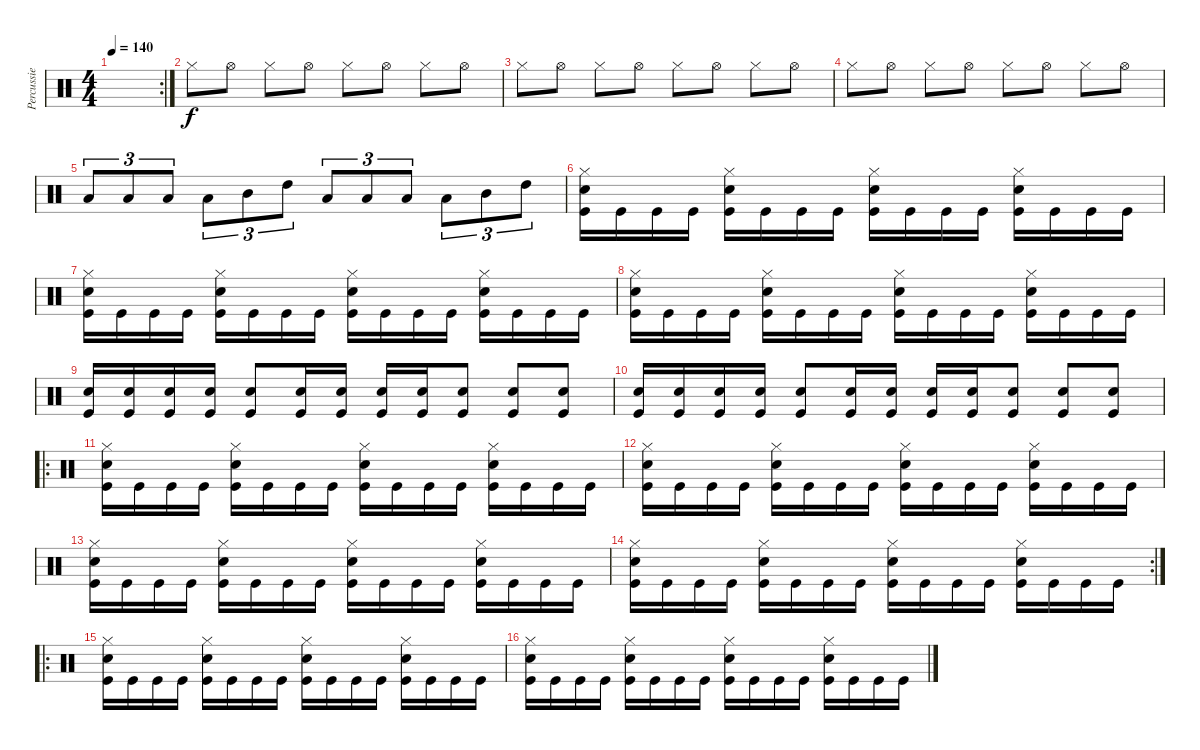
\track ("Percussie" "Percussie") {instrument percussion}
\staff {score}
\articulation defaults
\rc 2
\ts (4 4)
\tempo 140
\clef neutral
\ks c
|
"Hi-Hat (closed)".8 "Hi-Hat (open)".8 "Hi-Hat (closed)".8 "Hi-Hat (open)".8 "Hi-Hat (closed)".8 "Hi-Hat (open)".8 "Hi-Hat (closed)".8 "Hi-Hat (open)".8 |
"Hi-Hat (closed)".8 "Hi-Hat (open)".8 "Hi-Hat (closed)".8 "Hi-Hat (open)".8 "Hi-Hat (closed)".8 "Hi-Hat (open)".8 "Hi-Hat (closed)".8 "Hi-Hat (open)".8 |
"Hi-Hat (closed)".8 "Hi-Hat (open)".8 "Hi-Hat (closed)".8 "Hi-Hat (open)".8 "Hi-Hat (closed)".8 "Hi-Hat (open)".8 "Hi-Hat (closed)".8 "Hi-Hat (open)".8 |
"Low Tom (hit)".8{tu (3 2)} "Low Tom (hit)".8{tu (3 2)} "Low Tom (hit)".8{tu (3 2)} "Low Tom (hit)".8{tu (3 2)} "Mid Tom (hit)".8{tu (3 2)} "High Tom (hit)".8{tu (3 2)} "Low Tom (hit)".8{tu (3 2)} "Low Tom (hit)".8{tu (3 2)} "Low Tom (hit)".8{tu (3 2)} "Low Tom (hit)".8{tu (3 2)} "Mid Tom (hit)".8{tu (3 2)} "High Tom (hit)".8{tu (3 2)} |
("Snare (hit) 2" "Hi-Hat (closed)" "Kick (hit)").16 "Kick (hit)".16 "Kick (hit)".16 "Kick (hit)".16 ("Snare (hit) 2" "Hi-Hat (closed)" "Kick (hit)").16 "Kick (hit)".16 "Kick (hit)".16 "Kick (hit)".16 ("Snare (hit) 2" "Hi-Hat (closed)" "Kick (hit)").16 "Kick (hit)".16 "Kick (hit)".16 "Kick (hit)".16 ("Snare (hit) 2" "Hi-Hat (closed)" "Kick (hit)").16 "Kick (hit)".16 "Kick (hit)".16 "Kick (hit)".16 |
("Snare (hit) 2" "Hi-Hat (closed)" "Kick (hit)").16 "Kick (hit)".16 "Kick (hit)".16 "Kick (hit)".16 ("Snare (hit) 2" "Hi-Hat (closed)" "Kick (hit)").16 "Kick (hit)".16 "Kick (hit)".16 "Kick (hit)".16 ("Snare (hit) 2" "Hi-Hat (closed)" "Kick (hit)").16 "Kick (hit)".16 "Kick (hit)".16 "Kick (hit)".16 ("Snare (hit) 2" "Hi-Hat (closed)" "Kick (hit)").16 "Kick (hit)".16 "Kick (hit)".16 "Kick (hit)".16 |
("Snare (hit) 2" "Hi-Hat (closed)" "Kick (hit)").16 "Kick (hit)".16 "Kick (hit)".16 "Kick (hit)".16 ("Snare (hit) 2" "Hi-Hat (closed)" "Kick (hit)").16 "Kick (hit)".16 "Kick (hit)".16 "Kick (hit)".16 ("Snare (hit) 2" "Hi-Hat (closed)" "Kick (hit)").16 "Kick (hit)".16 "Kick (hit)".16 "Kick (hit)".16 ("Snare (hit) 2" "Hi-Hat (closed)" "Kick (hit)").16 "Kick (hit)".16 "Kick (hit)".16 "Kick (hit)".16 |
("Snare (hit) 2" "Kick (hit)").16 ("Snare (hit) 2" "Kick (hit)").16 ("Snare (hit) 2" "Kick (hit)").16 ("Snare (hit) 2" "Kick (hit)").16 ("Snare (hit) 2" "Kick (hit)").8 ("Snare (hit) 2" "Kick (hit)").16 ("Snare (hit) 2" "Kick (hit)").16 ("Snare (hit) 2" "Kick (hit)").16 ("Snare (hit) 2" "Kick (hit)").16 ("Snare (hit) 2" "Kick (hit)").8 ("Snare (hit) 2" "Kick (hit)").8 ("Snare (hit) 2" "Kick (hit)").8 |
("Snare (hit) 2" "Kick (hit)").16 ("Snare (hit) 2" "Kick (hit)").16 ("Snare (hit) 2" "Kick (hit)").16 ("Snare (hit) 2" "Kick (hit)").16 ("Snare (hit) 2" "Kick (hit)").8 ("Snare (hit) 2" "Kick (hit)").16 ("Snare (hit) 2" "Kick (hit)").16 ("Snare (hit) 2" "Kick (hit)").16 ("Snare (hit) 2" "Kick (hit)").16 ("Snare (hit) 2" "Kick (hit)").8 ("Snare (hit) 2" "Kick (hit)").8 ("Snare (hit) 2" "Kick (hit)").8 |
\ro
("Snare (hit) 2" "Hi-Hat (closed)" "Kick (hit)").16 "Kick (hit)".16 "Kick (hit)".16 "Kick (hit)".16 ("Snare (hit) 2" "Hi-Hat (closed)" "Kick (hit)").16 "Kick (hit)".16 "Kick (hit)".16 "Kick (hit)".16 ("Snare (hit) 2" "Hi-Hat (closed)" "Kick (hit)").16 "Kick (hit)".16 "Kick (hit)".16 "Kick (hit)".16 ("Snare (hit) 2" "Hi-Hat (closed)" "Kick (hit)").16 "Kick (hit)".16 "Kick (hit)".16 "Kick (hit)".16 |
("Snare (hit) 2" "Hi-Hat (closed)" "Kick (hit)").16 "Kick (hit)".16 "Kick (hit)".16 "Kick (hit)".16 ("Snare (hit) 2" "Hi-Hat (closed)" "Kick (hit)").16 "Kick (hit)".16 "Kick (hit)".16 "Kick (hit)".16 ("Snare (hit) 2" "Hi-Hat (closed)" "Kick (hit)").16 "Kick (hit)".16 "Kick (hit)".16 "Kick (hit)".16 ("Snare (hit) 2" "Hi-Hat (closed)" "Kick (hit)").16 "Kick (hit)".16 "Kick (hit)".16 "Kick (hit)".16 |
("Snare (hit) 2" "Hi-Hat (closed)" "Kick (hit)").16 "Kick (hit)".16 "Kick (hit)".16 "Kick (hit)".16 ("Snare (hit) 2" "Hi-Hat (closed)" "Kick (hit)").16 "Kick (hit)".16 "Kick (hit)".16 "Kick (hit)".16 ("Snare (hit) 2" "Hi-Hat (closed)" "Kick (hit)").16 "Kick (hit)".16 "Kick (hit)".16 "Kick (hit)".16 ("Snare (hit) 2" "Hi-Hat (closed)" "Kick (hit)").16 "Kick (hit)".16 "Kick (hit)".16 "Kick (hit)".16 |
\rc 2
("Snare (hit) 2" "Hi-Hat (closed)" "Kick (hit)").16 "Kick (hit)".16 "Kick (hit)".16 "Kick (hit)".16 ("Snare (hit) 2" "Hi-Hat (closed)" "Kick (hit)").16 "Kick (hit)".16 "Kick (hit)".16 "Kick (hit)".16 ("Snare (hit) 2" "Hi-Hat (closed)" "Kick (hit)").16 "Kick (hit)".16 "Kick (hit)".16 "Kick (hit)".16 ("Snare (hit) 2" "Hi-Hat (closed)" "Kick (hit)").16 "Kick (hit)".16 "Kick (hit)".16 "Kick (hit)".16 |
\ro
("Snare (hit) 2" "Hi-Hat (closed)" "Kick (hit)").16 "Kick (hit)".16 "Kick (hit)".16 "Kick (hit)".16 ("Snare (hit) 2" "Hi-Hat (closed)" "Kick (hit)").16 "Kick (hit)".16 "Kick (hit)".16 "Kick (hit)".16 ("Snare (hit) 2" "Hi-Hat (closed)" "Kick (hit)").16 "Kick (hit)".16 "Kick (hit)".16 "Kick (hit)".16 ("Snare (hit) 2" "Hi-Hat (closed)" "Kick (hit)").16 "Kick (hit)".16 "Kick (hit)".16 "Kick (hit)".16 |
("Snare (hit) 2" "Hi-Hat (closed)" "Kick (hit)").16 "Kick (hit)".16 "Kick (hit)".16 "Kick (hit)".16 ("Snare (hit) 2" "Hi-Hat (closed)" "Kick (hit)").16 "Kick (hit)".16 "Kick (hit)".16 "Kick (hit)".16 ("Snare (hit) 2" "Hi-Hat (closed)" "Kick (hit)").16 "Kick (hit)".16 "Kick (hit)".16 "Kick (hit)".16 ("Snare (hit) 2" "Hi-Hat (closed)" "Kick (hit)").16 "Kick (hit)".16 "Kick (hit)".16 "Kick (hit)".16
